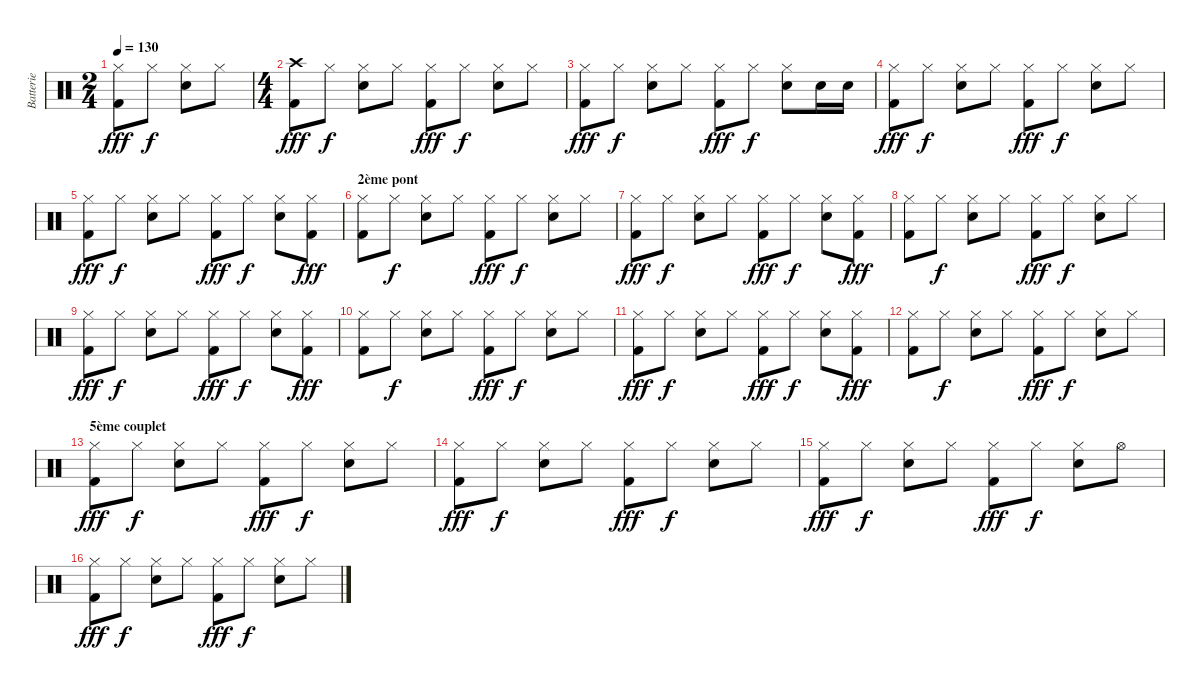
\track ("Batterie" "Batterie") {instrument percussion}
\staff {score}
\articulation defaults
\ts (2 4)
\tempo 130
\clef neutral
\ks c
("Hi-Hat (closed)" "Kick (hit) 2").8{dy fff} "Hi-Hat (closed)".8{dy f} ("Hi-Hat (closed)" "Snare (hit) 2").8 "Hi-Hat (closed)".8 |
\ts (4 4)
("Crash high (hit)" "Kick (hit) 2").8{dy fff} "Hi-Hat (closed)".8{dy f} ("Hi-Hat (closed)" "Snare (hit) 2").8 "Hi-Hat (closed)".8 ("Hi-Hat (closed)" "Kick (hit) 2").8{dy fff} "Hi-Hat (closed)".8{dy f} ("Hi-Hat (closed)" "Snare (hit) 2").8 "Hi-Hat (closed)".8 |
("Hi-Hat (closed)" "Kick (hit) 2").8{dy fff} "Hi-Hat (closed)".8{dy f} ("Hi-Hat (closed)" "Snare (hit) 2").8 "Hi-Hat (closed)".8 ("Hi-Hat (closed)" "Kick (hit) 2").8{dy fff} "Hi-Hat (closed)".8{dy f} ("Hi-Hat (closed)" "Snare (hit) 2").8 "Snare (hit) 2".16 "Snare (hit) 2".16 |
("Hi-Hat (closed)" "Kick (hit) 2").8{dy fff} "Hi-Hat (closed)".8{dy f} ("Hi-Hat (closed)" "Snare (hit) 2").8 "Hi-Hat (closed)".8 ("Hi-Hat (closed)" "Kick (hit) 2").8{dy fff} "Hi-Hat (closed)".8{dy f} ("Hi-Hat (closed)" "Snare (hit) 2").8 "Hi-Hat (closed)".8 |
("Hi-Hat (closed)" "Kick (hit) 2").8{dy fff} "Hi-Hat (closed)".8{dy f} ("Hi-Hat (closed)" "Snare (hit) 2").8 "Hi-Hat (closed)".8 ("Hi-Hat (closed)" "Kick (hit) 2").8{dy fff} "Hi-Hat (closed)".8{dy f} ("Hi-Hat (closed)" "Snare (hit) 2").8 ("Hi-Hat (closed)" "Kick (hit) 2").8{dy fff} |
\section ("" "2ème pont")
("Hi-Hat (closed)" "Kick (hit) 2").8 "Hi-Hat (closed)".8{dy f} ("Hi-Hat (closed)" "Snare (hit) 2").8 "Hi-Hat (closed)".8 ("Hi-Hat (closed)" "Kick (hit) 2").8{dy fff} "Hi-Hat (closed)".8{dy f} ("Hi-Hat (closed)" "Snare (hit) 2").8 "Hi-Hat (closed)".8 |
("Hi-Hat (closed)" "Kick (hit) 2").8{dy fff} "Hi-Hat (closed)".8{dy f} ("Hi-Hat (closed)" "Snare (hit) 2").8 "Hi-Hat (closed)".8 ("Hi-Hat (closed)" "Kick (hit) 2").8{dy fff} "Hi-Hat (closed)".8{dy f} ("Hi-Hat (closed)" "Snare (hit) 2").8 ("Hi-Hat (closed)" "Kick (hit) 2").8{dy fff} |
("Hi-Hat (closed)" "Kick (hit) 2").8 "Hi-Hat (closed)".8{dy f} ("Hi-Hat (closed)" "Snare (hit) 2").8 "Hi-Hat (closed)".8 ("Hi-Hat (closed)" "Kick (hit) 2").8{dy fff} "Hi-Hat (closed)".8{dy f} ("Hi-Hat (closed)" "Snare (hit) 2").8 "Hi-Hat (closed)".8 |
("Hi-Hat (closed)" "Kick (hit) 2").8{dy fff} "Hi-Hat (closed)".8{dy f} ("Hi-Hat (closed)" "Snare (hit) 2").8 "Hi-Hat (closed)".8 ("Hi-Hat (closed)" "Kick (hit) 2").8{dy fff} "Hi-Hat (closed)".8{dy f} ("Hi-Hat (closed)" "Snare (hit) 2").8 ("Hi-Hat (closed)" "Kick (hit) 2").8{dy fff} |
("Hi-Hat (closed)" "Kick (hit) 2").8 "Hi-Hat (closed)".8{dy f} ("Hi-Hat (closed)" "Snare (hit) 2").8 "Hi-Hat (closed)".8 ("Hi-Hat (closed)" "Kick (hit) 2").8{dy fff} "Hi-Hat (closed)".8{dy f} ("Hi-Hat (closed)" "Snare (hit) 2").8 "Hi-Hat (closed)".8 |
("Hi-Hat (closed)" "Kick (hit) 2").8{dy fff} "Hi-Hat (closed)".8{dy f} ("Hi-Hat (closed)" "Snare (hit) 2").8 "Hi-Hat (closed)".8 ("Hi-Hat (closed)" "Kick (hit) 2").8{dy fff} "Hi-Hat (closed)".8{dy f} ("Hi-Hat (closed)" "Snare (hit) 2").8 ("Hi-Hat (closed)" "Kick (hit) 2").8{dy fff} |
("Hi-Hat (closed)" "Kick (hit) 2").8 "Hi-Hat (closed)".8{dy f} ("Hi-Hat (closed)" "Snare (hit) 2").8 "Hi-Hat (closed)".8 ("Hi-Hat (closed)" "Kick (hit) 2").8{dy fff} "Hi-Hat (closed)".8{dy f} ("Hi-Hat (closed)" "Snare (hit) 2").8 "Hi-Hat (closed)".8 |
\section ("" "5ème couplet")
("Hi-Hat (closed)" "Kick (hit) 2").8{dy fff} "Hi-Hat (closed)".8{dy f} ("Hi-Hat (closed)" "Snare (hit) 2").8 "Hi-Hat (closed)".8 ("Hi-Hat (closed)" "Kick (hit) 2").8{dy fff} "Hi-Hat (closed)".8{dy f} ("Hi-Hat (closed)" "Snare (hit) 2").8 "Hi-Hat (closed)".8 |
("Hi-Hat (closed)" "Kick (hit) 2").8{dy fff} "Hi-Hat (closed)".8{dy f} ("Hi-Hat (closed)" "Snare (hit) 2").8 "Hi-Hat (closed)".8 ("Hi-Hat (closed)" "Kick (hit) 2").8{dy fff} "Hi-Hat (closed)".8{dy f} ("Hi-Hat (closed)" "Snare (hit) 2").8 "Hi-Hat (closed)".8 |
("Hi-Hat (closed)" "Kick (hit) 2").8{dy fff} "Hi-Hat (closed)".8{dy f} ("Hi-Hat (closed)" "Snare (hit) 2").8 "Hi-Hat (closed)".8 ("Hi-Hat (closed)" "Kick (hit) 2").8{dy fff} "Hi-Hat (closed)".8{dy f} ("Hi-Hat (closed)" "Snare (hit) 2").8 "Hi-Hat (open)".8 |
("Hi-Hat (closed)" "Kick (hit) 2").8{dy fff} "Hi-Hat (closed)".8{dy f} ("Hi-Hat (closed)" "Snare (hit) 2").8 "Hi-Hat (closed)".8 ("Hi-Hat (closed)" "Kick (hit) 2").8{dy fff} "Hi-Hat (closed)".8{dy f} ("Hi-Hat (closed)" "Snare (hit) 2").8 "Hi-Hat (closed)".8
